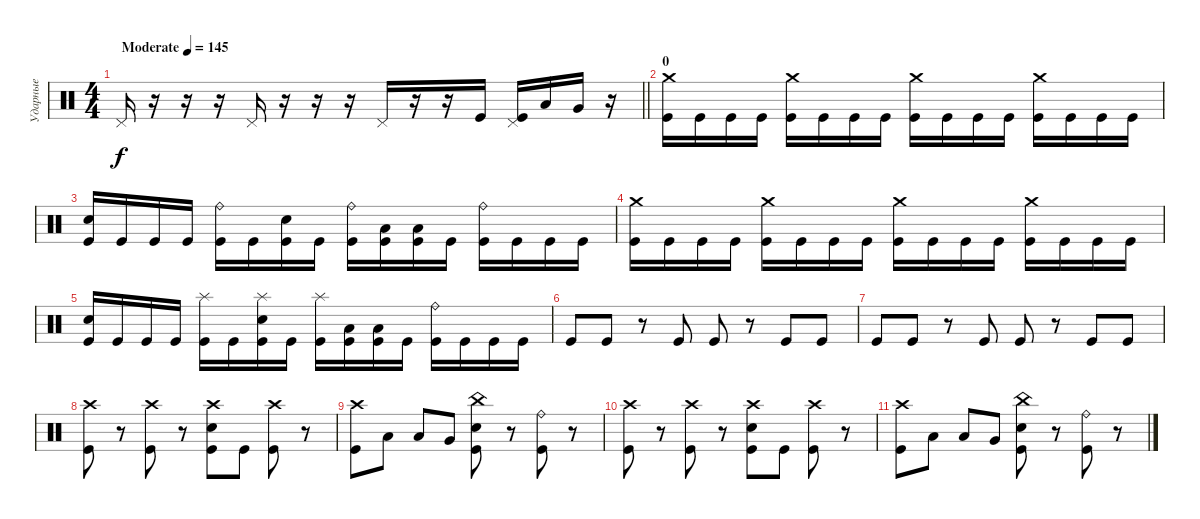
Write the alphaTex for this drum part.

\track ("Ударные" "Ударные") {instrument percussion}
\staff {score}
\articulation defaults
\ts (4 4)
\tempo (145 "Moderate")
\clef neutral
\barLineRight lightlight
\ks c "Pedal Hi-Hat (hit)".16{dy f}
r.16 r.16 r.16 "Pedal Hi-Hat (hit)".16 r.16 r.16 r.16 "Pedal Hi-Hat (hit)".16 r.16 r.16 "Kick (hit)".16 ("Pedal Hi-Hat (hit)" "Kick (hit)").16 "Low Tom (hit)".16 "Very Low Tom (hit)".16 r.16 |
\section ("" "0")
("Crash medium (hit)" "Kick (hit)").16 "Kick (hit)".16 "Kick (hit)".16 "Kick (hit)".16 ("Crash medium (hit)" "Kick (hit)").16 "Kick (hit)".16 "Kick (hit)".16 "Kick (hit)".16 ("Crash medium (hit)" "Kick (hit)").16 "Kick (hit)".16 "Kick (hit)".16 "Kick (hit)".16 ("Crash medium (hit)" "Kick (hit)").16 "Kick (hit)".16 "Kick (hit)".16 "Kick (hit)".16 |
("Electric Snare (hit)" "Kick (hit)").16 "Kick (hit)".16 "Kick (hit)".16 "Kick (hit)".16 ("Ride (bell)" "Kick (hit)").16 "Kick (hit)".16 ("Electric Snare (hit)" "Kick (hit)").16 "Kick (hit)".16 ("Ride (bell)" "Kick (hit)").16 ("Low Tom (hit)" "Kick (hit)").16 ("Low Tom (hit)" "Kick (hit)").16 "Kick (hit)".16 ("Ride (bell)" "Kick (hit)").16 "Kick (hit)".16 "Kick (hit)".16 "Kick (hit)".16 |
("Crash medium (hit)" "Kick (hit)").16 "Kick (hit)".16 "Kick (hit)".16 "Kick (hit)".16 ("Crash medium (hit)" "Kick (hit)").16 "Kick (hit)".16 "Kick (hit)".16 "Kick (hit)".16 ("Crash medium (hit)" "Kick (hit)").16 "Kick (hit)".16 "Kick (hit)".16 "Kick (hit)".16 ("Crash medium (hit)" "Kick (hit)").16 "Kick (hit)".16 "Kick (hit)".16 "Kick (hit)".16 |
("Electric Snare (hit)" "Kick (hit)").16 "Kick (hit)".16 "Kick (hit)".16 "Kick (hit)".16 ("Splash (hit)" "Kick (hit)").16 "Kick (hit)".16 ("Splash (hit)" "Electric Snare (hit)" "Kick (hit)").16 "Kick (hit)".16 ("Splash (hit)" "Kick (hit)").16 ("Low Tom (hit)" "Kick (hit)").16 ("Low Tom (hit)" "Kick (hit)").16 "Kick (hit)".16 ("Ride (bell)" "Kick (hit)").16 "Kick (hit)".16 "Kick (hit)".16 "Kick (hit)".16 |
"Kick (hit)".8 "Kick (hit)".8 r.8 "Kick (hit)".8 "Kick (hit)".8 r.8 "Kick (hit)".8 "Kick (hit)".8 |
"Kick (hit)".8 "Kick (hit)".8 r.8 "Kick (hit)".8 "Kick (hit)".8 r.8 "Kick (hit)".8 "Kick (hit)".8 |
("Crash high (hit)" "Kick (hit)").8 r.8 ("Crash high (hit)" "Kick (hit)").8 r.8 ("Crash high (hit)" "Electric Snare (hit)" "Kick (hit)").8 "Kick (hit)".8 ("Crash high (hit)" "Kick (hit)").8 r.8 |
("Crash high (hit)" "Kick (hit)").8 "Low Tom (hit)".8 "Low Tom (hit)".8 "Very Low Tom (hit)".8 ("China (hit)" "Electric Snare (hit)" "Kick (hit)").8 r.8 ("Ride (bell)" "Kick (hit)").8 r.8 |
("Crash high (hit)" "Kick (hit)").8 r.8 ("Crash high (hit)" "Kick (hit)").8 r.8 ("Crash high (hit)" "Electric Snare (hit)" "Kick (hit)").8 "Kick (hit)".8 ("Crash high (hit)" "Kick (hit)").8 r.8 |
("Crash high (hit)" "Kick (hit)").8 "Low Tom (hit)".8 "Low Tom (hit)".8 "Very Low Tom (hit)".8 ("China (hit)" "Electric Snare (hit)" "Kick (hit)").8 r.8 ("Ride (bell)" "Kick (hit)").8 r.8
